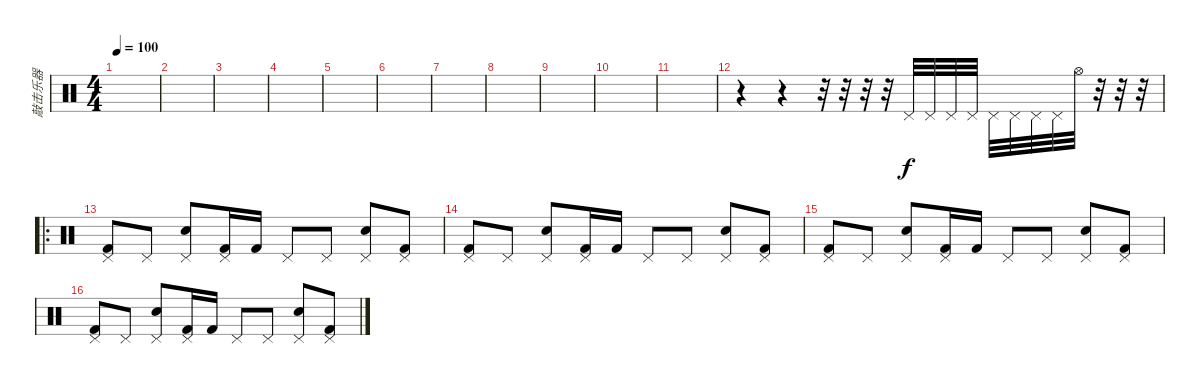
\track ("敲击乐器" "敲击乐器") {instrument percussion}
\staff {score}
\articulation defaults
\ts (4 4)
\tempo 100
\clef neutral
\ks c
|
|
|
|
|
|
|
|
|
|
|
r.4 r.4 r.32 r.32 r.32 r.32 "Pedal Hi-Hat (hit)".32 "Pedal Hi-Hat (hit)".32 "Pedal Hi-Hat (hit)".32 "Pedal Hi-Hat (hit)".32 "Pedal Hi-Hat (hit)".32 "Pedal Hi-Hat (hit)".32 "Pedal Hi-Hat (hit)".32 "Pedal Hi-Hat (hit)".32 "Hi-Hat (open)".32 r.32 r.32 r.32 |
\ro
("Pedal Hi-Hat (hit)" "Kick (hit) 2").8 "Pedal Hi-Hat (hit)".8 ("Pedal Hi-Hat (hit)" "Electric Snare (hit)").8 ("Pedal Hi-Hat (hit)" "Kick (hit) 2").16 "Kick (hit) 2".16 "Pedal Hi-Hat (hit)".8 "Pedal Hi-Hat (hit)".8 ("Pedal Hi-Hat (hit)" "Electric Snare (hit)").8 ("Pedal Hi-Hat (hit)" "Kick (hit) 2").8 |
("Pedal Hi-Hat (hit)" "Kick (hit) 2").8 "Pedal Hi-Hat (hit)".8 ("Pedal Hi-Hat (hit)" "Electric Snare (hit)").8 ("Pedal Hi-Hat (hit)" "Kick (hit) 2").16 "Kick (hit) 2".16 "Pedal Hi-Hat (hit)".8 "Pedal Hi-Hat (hit)".8 ("Pedal Hi-Hat (hit)" "Electric Snare (hit)").8 ("Pedal Hi-Hat (hit)" "Kick (hit) 2").8 |
("Pedal Hi-Hat (hit)" "Kick (hit) 2").8 "Pedal Hi-Hat (hit)".8 ("Pedal Hi-Hat (hit)" "Electric Snare (hit)").8 ("Pedal Hi-Hat (hit)" "Kick (hit) 2").16 "Kick (hit) 2".16 "Pedal Hi-Hat (hit)".8 "Pedal Hi-Hat (hit)".8 ("Pedal Hi-Hat (hit)" "Electric Snare (hit)").8 ("Pedal Hi-Hat (hit)" "Kick (hit) 2").8 |
("Pedal Hi-Hat (hit)" "Kick (hit) 2").8 "Pedal Hi-Hat (hit)".8 ("Pedal Hi-Hat (hit)" "Electric Snare (hit)").8 ("Pedal Hi-Hat (hit)" "Kick (hit) 2").16 "Kick (hit) 2".16 "Pedal Hi-Hat (hit)".8 "Pedal Hi-Hat (hit)".8 ("Pedal Hi-Hat (hit)" "Electric Snare (hit)").8 ("Pedal Hi-Hat (hit)" "Kick (hit) 2").8
